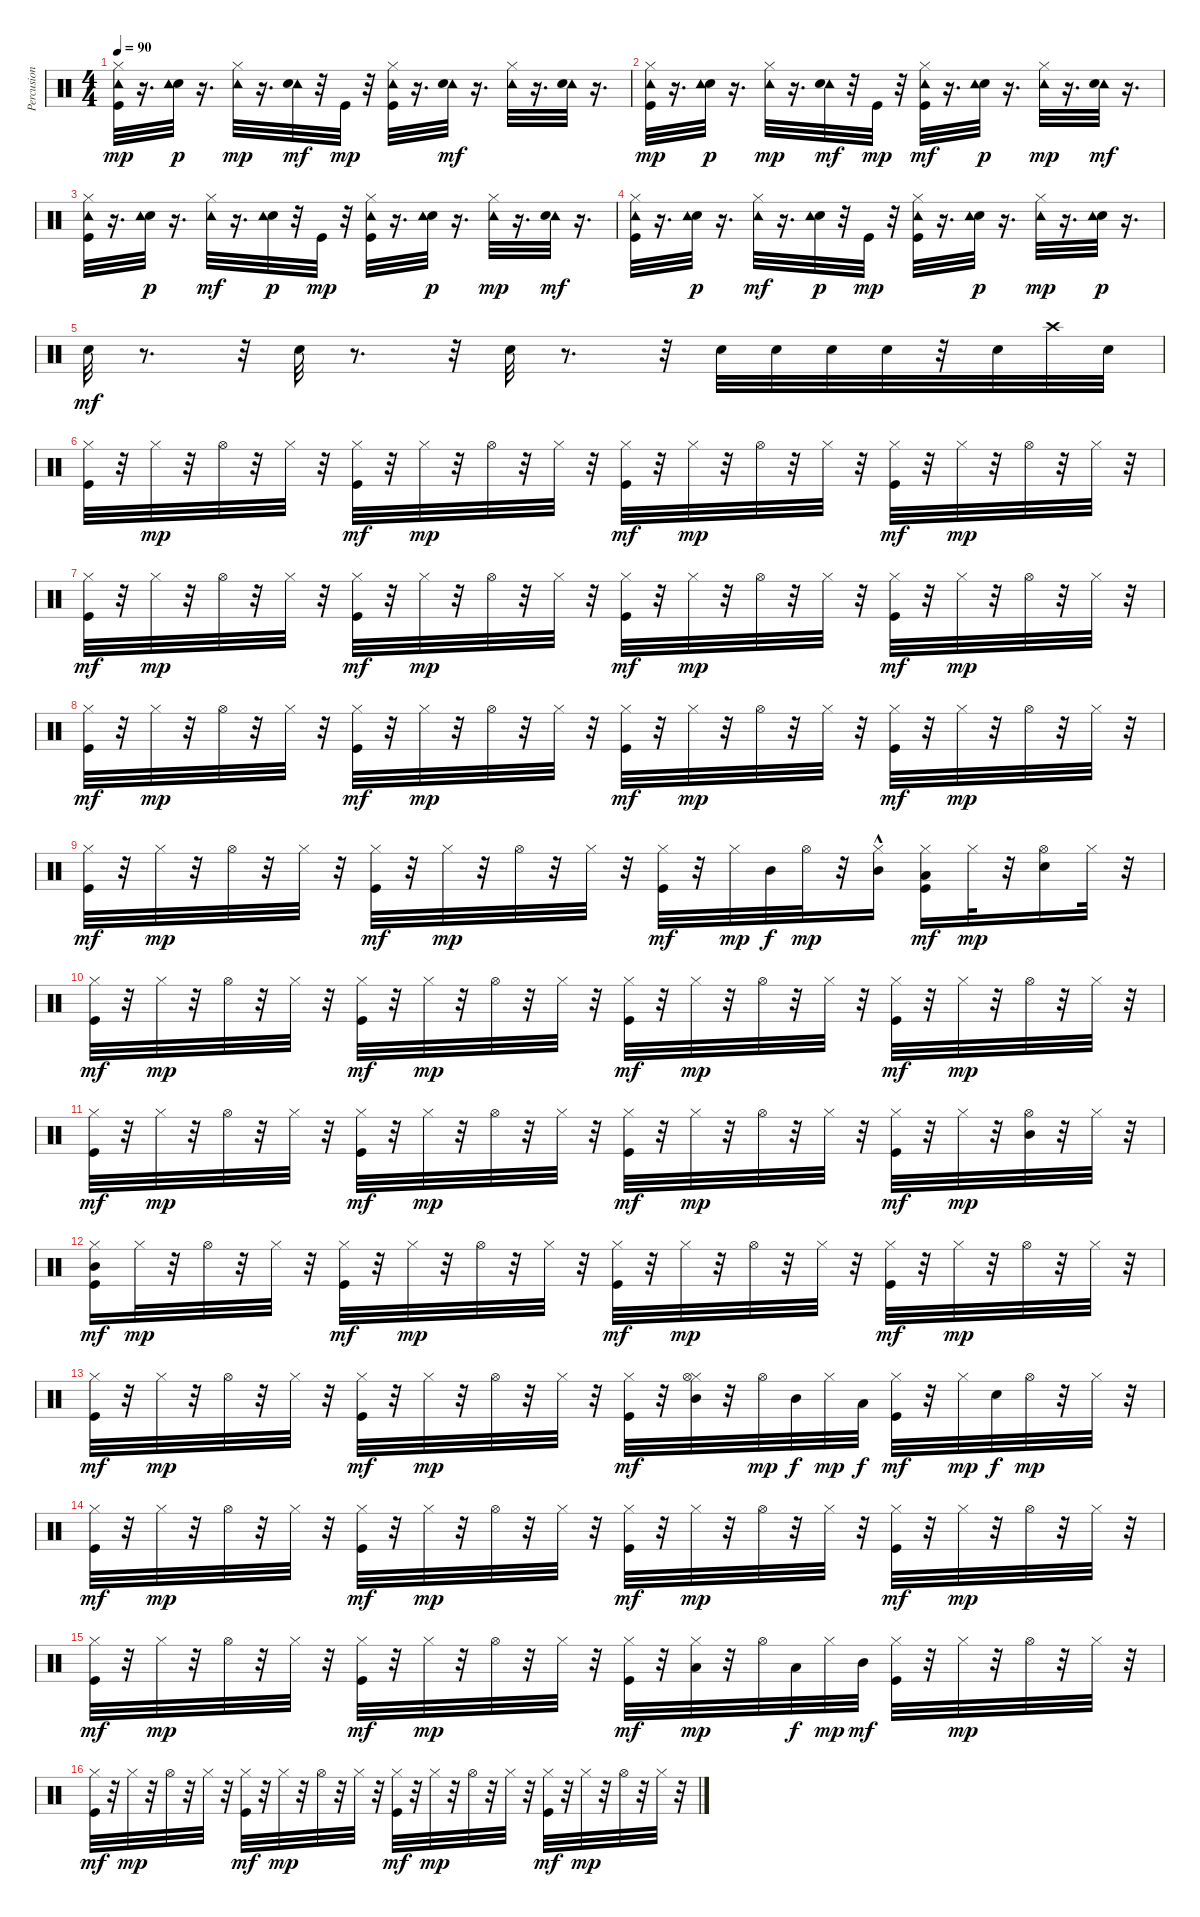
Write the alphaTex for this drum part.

\track ("Percusion" "Percusion") {instrument percussion}
\staff {score}
\articulation defaults
\ts (4 4)
\tempo 90
\clef neutral
\ks c
("Hi-Hat (closed)" "Kick (hit)" "Tambourine (hit)").32{dy mp} r.16{d} ("Snare (hit) 2" "Tambourine (hit)").32{dy p} r.16{d} ("Hi-Hat (closed)" "Tambourine (hit)").32{dy mp} r.16{d} ("Tambourine (hit)" "Snare (hit) 2").32{dy mf} r.32 "Kick (hit)".32{dy mp} r.32 ("Hi-Hat (closed)" "Tambourine (hit)" "Kick (hit)").32 r.16{d} ("Tambourine (hit)" "Snare (hit) 2").32{dy mf} r.16{d} ("Tambourine (hit)" "Hi-Hat (closed)").32 r.16{d} ("Tambourine (hit)" "Snare (hit) 2").32 r.16{d} |
("Kick (hit)" "Hi-Hat (closed)" "Tambourine (hit)").32{dy mp} r.16{d} ("Snare (hit) 2" "Tambourine (hit)").32{dy p} r.16{d} ("Hi-Hat (closed)" "Tambourine (hit)").32{dy mp} r.16{d} ("Tambourine (hit)" "Snare (hit) 2").32{dy mf} r.32 "Kick (hit)".32{dy mp} r.32 ("Tambourine (hit)" "Kick (hit)" "Hi-Hat (closed)").32{dy mf} r.16{d} ("Snare (hit) 2" "Tambourine (hit)").32{dy p} r.16{d} ("Hi-Hat (closed)" "Tambourine (hit)").32{dy mp} r.16{d} ("Tambourine (hit)" "Snare (hit) 2").32{dy mf} r.16{d} |
("Kick (hit)" "Tambourine (hit)" "Hi-Hat (closed)").32 r.16{d} ("Snare (hit) 2" "Tambourine (hit)").32{dy p} r.16{d} ("Tambourine (hit)" "Hi-Hat (closed)").32{dy mf} r.16{d} ("Snare (hit) 2" "Tambourine (hit)").32{dy p} r.32 "Kick (hit)".32{dy mp} r.32 ("Tambourine (hit)" "Hi-Hat (closed)" "Kick (hit)").32 r.16{d} ("Snare (hit) 2" "Tambourine (hit)").32{dy p} r.16{d} ("Hi-Hat (closed)" "Tambourine (hit)").32{dy mp} r.16{d} ("Tambourine (hit)" "Snare (hit) 2").32{dy mf} r.16{d} |
("Tambourine (hit)" "Kick (hit)" "Hi-Hat (closed)").32 r.16{d} ("Snare (hit) 2" "Tambourine (hit)").32{dy p} r.16{d} ("Tambourine (hit)" "Hi-Hat (closed)").32{dy mf} r.16{d} ("Snare (hit) 2" "Tambourine (hit)").32{dy p} r.32 "Kick (hit)".32{dy mp} r.32 ("Kick (hit)" "Hi-Hat (closed)" "Tambourine (hit)").32 r.16{d} ("Snare (hit) 2" "Tambourine (hit)").32{dy p} r.16{d} ("Hi-Hat (closed)" "Tambourine (hit)").32{dy mp} r.16{d} ("Snare (hit) 2" "Tambourine (hit)").32{dy p} r.16{d} |
"Snare (hit) 2".32{dy mf} r.8{d} r.32 "Snare (hit) 2".32 r.8{d} r.32 "Snare (hit) 2".32 r.8{d} r.32 "Snare (hit) 2".32 "Snare (hit) 2".32 "Snare (hit) 2".32 "Snare (hit) 2".32 r.32 "Snare (hit) 2".32 "Crash high (hit)".32 "Snare (hit) 2".32 |
("Kick (hit)" "Hi-Hat (closed)").32 r.32 "Hi-Hat (closed)".32{dy mp} r.32 "Hi-Hat (open)".32 r.32 "Hi-Hat (closed)".32 r.32 ("Hi-Hat (closed)" "Kick (hit)").32{dy mf} r.32 "Hi-Hat (closed)".32{dy mp} r.32 "Hi-Hat (open)".32 r.32 "Hi-Hat (closed)".32 r.32 ("Kick (hit)" "Hi-Hat (closed)").32{dy mf} r.32 "Hi-Hat (closed)".32{dy mp} r.32 "Hi-Hat (open)".32 r.32 "Hi-Hat (closed)".32 r.32 ("Kick (hit)" "Hi-Hat (closed)").32{dy mf} r.32 "Hi-Hat (closed)".32{dy mp} r.32 "Hi-Hat (open)".32 r.32 "Hi-Hat (closed)".32 r.32 |
("Hi-Hat (closed)" "Kick (hit)").32{dy mf} r.32 "Hi-Hat (closed)".32{dy mp} r.32 "Hi-Hat (open)".32 r.32 "Hi-Hat (closed)".32 r.32 ("Hi-Hat (closed)" "Kick (hit)").32{dy mf} r.32 "Hi-Hat (closed)".32{dy mp} r.32 "Hi-Hat (open)".32 r.32 "Hi-Hat (closed)".32 r.32 ("Hi-Hat (closed)" "Kick (hit)").32{dy mf} r.32 "Hi-Hat (closed)".32{dy mp} r.32 "Hi-Hat (open)".32 r.32 "Hi-Hat (closed)".32 r.32 ("Hi-Hat (closed)" "Kick (hit)").32{dy mf} r.32 "Hi-Hat (closed)".32{dy mp} r.32 "Hi-Hat (open)".32 r.32 "Hi-Hat (closed)".32 r.32 |
("Kick (hit)" "Hi-Hat (closed)").32{dy mf} r.32 "Hi-Hat (closed)".32{dy mp} r.32 "Hi-Hat (open)".32 r.32 "Hi-Hat (closed)".32 r.32 ("Hi-Hat (closed)" "Kick (hit)").32{dy mf} r.32 "Hi-Hat (closed)".32{dy mp} r.32 "Hi-Hat (open)".32 r.32 "Hi-Hat (closed)".32 r.32 ("Hi-Hat (closed)" "Kick (hit)").32{dy mf} r.32 "Hi-Hat (closed)".32{dy mp} r.32 "Hi-Hat (open)".32 r.32 "Hi-Hat (closed)".32 r.32 ("Kick (hit)" "Hi-Hat (closed)").32{dy mf} r.32 "Hi-Hat (closed)".32{dy mp} r.32 "Hi-Hat (open)".32 r.32 "Hi-Hat (closed)".32 r.32 |
("Hi-Hat (closed)" "Kick (hit)").32{dy mf} r.32 "Hi-Hat (closed)".32{dy mp} r.32 "Hi-Hat (open)".32 r.32 "Hi-Hat (closed)".32 r.32 ("Hi-Hat (closed)" "Kick (hit)").32{dy mf} r.32 "Hi-Hat (closed)".32{dy mp} r.32 "Hi-Hat (open)".32 r.32 "Hi-Hat (closed)".32 r.32 ("Kick (hit)" "Hi-Hat (closed)").32{dy mf} r.32 "Hi-Hat (closed)".32{dy mp} "Mid Tom (hit)".32{dy f} "Hi-Hat (open)".32{dy mp} r.32 ("Mid Tom (hit)"{hac} "Hi-Hat (closed)").16 ("Low Tom (hit)" "Hi-Hat (closed)" "Kick (hit)").16{dy mf} "Hi-Hat (closed)".32{dy mp} r.32 ("Electric Snare (hit)" "Hi-Hat (open)").16 "Hi-Hat (closed)".32 r.32 |
("Hi-Hat (closed)" "Kick (hit)").32{dy mf} r.32 "Hi-Hat (closed)".32{dy mp} r.32 "Hi-Hat (open)".32 r.32 "Hi-Hat (closed)".32 r.32 ("Hi-Hat (closed)" "Kick (hit)").32{dy mf} r.32 "Hi-Hat (closed)".32{dy mp} r.32 "Hi-Hat (open)".32 r.32 "Hi-Hat (closed)".32 r.32 ("Hi-Hat (closed)" "Kick (hit)").32{dy mf} r.32 "Hi-Hat (closed)".32{dy mp} r.32 "Hi-Hat (open)".32 r.32 "Hi-Hat (closed)".32 r.32 ("Hi-Hat (closed)" "Kick (hit)").32{dy mf} r.32 "Hi-Hat (closed)".32{dy mp} r.32 "Hi-Hat (open)".32 r.32 "Hi-Hat (closed)".32 r.32 |
("Hi-Hat (closed)" "Kick (hit)").32{dy mf} r.32 "Hi-Hat (closed)".32{dy mp} r.32 "Hi-Hat (open)".32 r.32 "Hi-Hat (closed)".32 r.32 ("Hi-Hat (closed)" "Kick (hit)").32{dy mf} r.32 "Hi-Hat (closed)".32{dy mp} r.32 "Hi-Hat (open)".32 r.32 "Hi-Hat (closed)".32 r.32 ("Hi-Hat (closed)" "Kick (hit)").32{dy mf} r.32 "Hi-Hat (closed)".32{dy mp} r.32 "Hi-Hat (open)".32 r.32 "Hi-Hat (closed)".32 r.32 ("Hi-Hat (closed)" "Kick (hit)").32{dy mf} r.32 "Hi-Hat (closed)".32{dy mp} r.32 ("Mid Tom (hit)" "Hi-Hat (open)").32 r.32 "Hi-Hat (closed)".32 r.32 |
("Mid Tom (hit)" "Hi-Hat (closed)" "Kick (hit)").16{dy mf} "Hi-Hat (closed)".32{dy mp} r.32 "Hi-Hat (open)".32 r.32 "Hi-Hat (closed)".32 r.32 ("Hi-Hat (closed)" "Kick (hit)").32{dy mf} r.32 "Hi-Hat (closed)".32{dy mp} r.32 "Hi-Hat (open)".32 r.32 "Hi-Hat (closed)".32 r.32 ("Hi-Hat (closed)" "Kick (hit)").32{dy mf} r.32 "Hi-Hat (closed)".32{dy mp} r.32 "Hi-Hat (open)".32 r.32 "Hi-Hat (closed)".32 r.32 ("Kick (hit)" "Hi-Hat (closed)").32{dy mf} r.32 "Hi-Hat (closed)".32{dy mp} r.32 "Hi-Hat (open)".32 r.32 "Hi-Hat (closed)".32 r.32 |
("Hi-Hat (closed)" "Kick (hit)").32{dy mf} r.32 "Hi-Hat (closed)".32{dy mp} r.32 "Hi-Hat (open)".32 r.32 "Hi-Hat (closed)".32 r.32 ("Hi-Hat (closed)" "Kick (hit)").32{dy mf} r.32 "Hi-Hat (closed)".32{dy mp} r.32 "Hi-Hat (open)".32 r.32 "Hi-Hat (closed)".32 r.32 ("Kick (hit)" "Hi-Hat (closed)").32{dy mf} r.32 ("Hi-Hat (closed)" "Mid Tom (hit)" "Hi-Hat (open)").32 r.32 "Hi-Hat (open)".32{dy mp} "Mid Tom (hit)".32{dy f} "Hi-Hat (closed)".32{dy mp} "Low Tom (hit)".32{dy f} ("Kick (hit)" "Hi-Hat (closed)").32{dy mf} r.32 "Hi-Hat (closed)".32{dy mp} "Electric Snare (hit)".32{dy f} "Hi-Hat (open)".32{dy mp} r.32 "Hi-Hat (closed)".32 r.32 |
("Kick (hit)" "Hi-Hat (closed)").32{dy mf} r.32 "Hi-Hat (closed)".32{dy mp} r.32 "Hi-Hat (open)".32 r.32 "Hi-Hat (closed)".32 r.32 ("Kick (hit)" "Hi-Hat (closed)").32{dy mf} r.32 "Hi-Hat (closed)".32{dy mp} r.32 "Hi-Hat (open)".32 r.32 "Hi-Hat (closed)".32 r.32 ("Hi-Hat (closed)" "Kick (hit)").32{dy mf} r.32 "Hi-Hat (closed)".32{dy mp} r.32 "Hi-Hat (open)".32 r.32 "Hi-Hat (closed)".32 r.32 ("Kick (hit)" "Hi-Hat (closed)").32{dy mf} r.32 "Hi-Hat (closed)".32{dy mp} r.32 "Hi-Hat (open)".32 r.32 "Hi-Hat (closed)".32 r.32 |
("Kick (hit)" "Hi-Hat (closed)").32{dy mf} r.32 "Hi-Hat (closed)".32{dy mp} r.32 "Hi-Hat (open)".32 r.32 "Hi-Hat (closed)".32 r.32 ("Kick (hit)" "Hi-Hat (closed)").32{dy mf} r.32 "Hi-Hat (closed)".32{dy mp} r.32 "Hi-Hat (open)".32 r.32 "Hi-Hat (closed)".32 r.32 ("Kick (hit)" "Hi-Hat (closed)").32{dy mf} r.32 ("Low Tom (hit)" "Hi-Hat (closed)").32{dy mp} r.32 "Hi-Hat (open)".32 "Low Tom (hit)".32{dy f} "Hi-Hat (closed)".32{dy mp} "Mid Tom (hit)".32{dy mf} ("Hi-Hat (closed)" "Kick (hit)").32 r.32 "Hi-Hat (closed)".32{dy mp} r.32 "Hi-Hat (open)".32 r.32 "Hi-Hat (closed)".32 r.32 |
("Hi-Hat (closed)" "Kick (hit)").32{dy mf} r.32 "Hi-Hat (closed)".32{dy mp} r.32 "Hi-Hat (open)".32 r.32 "Hi-Hat (closed)".32 r.32 ("Kick (hit)" "Hi-Hat (closed)").32{dy mf} r.32 "Hi-Hat (closed)".32{dy mp} r.32 "Hi-Hat (open)".32 r.32 "Hi-Hat (closed)".32 r.32 ("Hi-Hat (closed)" "Kick (hit)").32{dy mf} r.32 "Hi-Hat (closed)".32{dy mp} r.32 "Hi-Hat (open)".32 r.32 "Hi-Hat (closed)".32 r.32 ("Hi-Hat (closed)" "Kick (hit)").32{dy mf} r.32 "Hi-Hat (closed)".32{dy mp} r.32 "Hi-Hat (open)".32 r.32 "Hi-Hat (closed)".32 r.32
